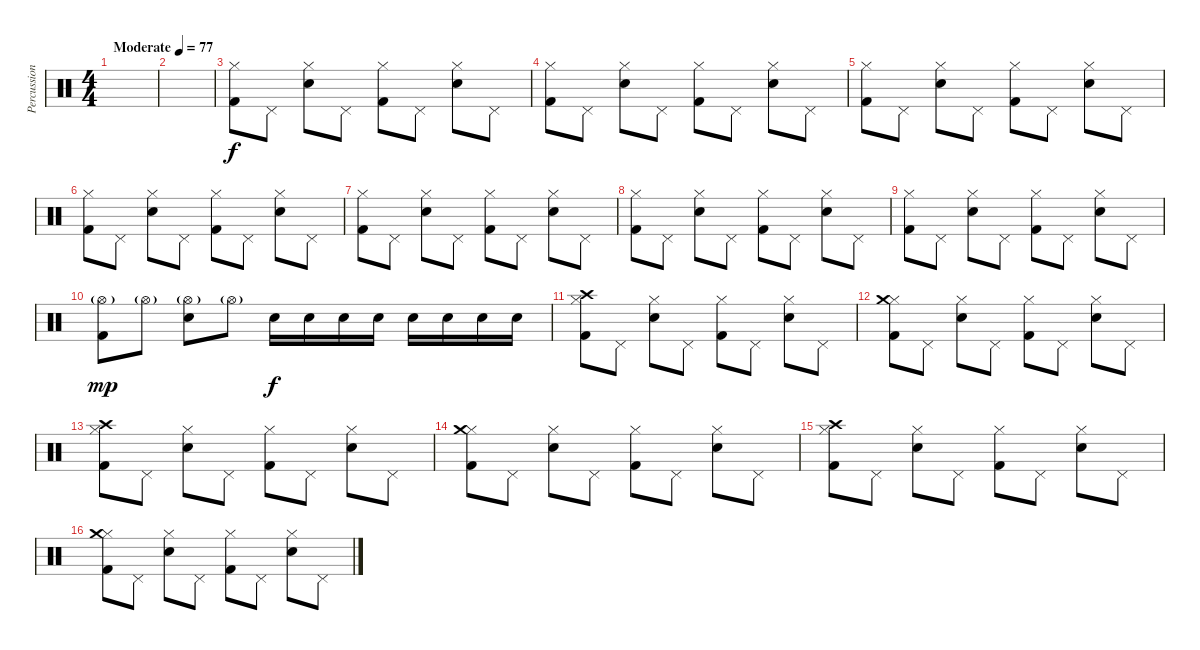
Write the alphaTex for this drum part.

\track ("Percussions" "Percussion") {instrument percussion}
\staff {score}
\articulation defaults
\ts (4 4)
\tempo (77 "Moderate")
\clef neutral
\ks c
|
|
("Hi-Hat (closed)" "Kick (hit) 2").8 "Pedal Hi-Hat (hit)".8 ("Hi-Hat (closed)" "Snare (hit) 2").8 "Pedal Hi-Hat (hit)".8 ("Hi-Hat (closed)" "Kick (hit) 2").8 "Pedal Hi-Hat (hit)".8 ("Hi-Hat (closed)" "Snare (hit) 2").8 "Pedal Hi-Hat (hit)".8 |
("Hi-Hat (closed)" "Kick (hit) 2").8 "Pedal Hi-Hat (hit)".8 ("Hi-Hat (closed)" "Snare (hit) 2").8 "Pedal Hi-Hat (hit)".8 ("Hi-Hat (closed)" "Kick (hit) 2").8 "Pedal Hi-Hat (hit)".8 ("Hi-Hat (closed)" "Snare (hit) 2").8 "Pedal Hi-Hat (hit)".8 |
("Hi-Hat (closed)" "Kick (hit) 2").8 "Pedal Hi-Hat (hit)".8 ("Hi-Hat (closed)" "Snare (hit) 2").8 "Pedal Hi-Hat (hit)".8 ("Hi-Hat (closed)" "Kick (hit) 2").8 "Pedal Hi-Hat (hit)".8 ("Hi-Hat (closed)" "Snare (hit) 2").8 "Pedal Hi-Hat (hit)".8 |
("Hi-Hat (closed)" "Kick (hit) 2").8 "Pedal Hi-Hat (hit)".8 ("Hi-Hat (closed)" "Snare (hit) 2").8 "Pedal Hi-Hat (hit)".8 ("Hi-Hat (closed)" "Kick (hit) 2").8 "Pedal Hi-Hat (hit)".8 ("Hi-Hat (closed)" "Snare (hit) 2").8 "Pedal Hi-Hat (hit)".8 |
("Hi-Hat (closed)" "Kick (hit) 2").8 "Pedal Hi-Hat (hit)".8 ("Hi-Hat (closed)" "Snare (hit) 2").8 "Pedal Hi-Hat (hit)".8 ("Hi-Hat (closed)" "Kick (hit) 2").8 "Pedal Hi-Hat (hit)".8 ("Hi-Hat (closed)" "Snare (hit) 2").8 "Pedal Hi-Hat (hit)".8 |
("Hi-Hat (closed)" "Kick (hit) 2").8 "Pedal Hi-Hat (hit)".8 ("Hi-Hat (closed)" "Snare (hit) 2").8 "Pedal Hi-Hat (hit)".8 ("Hi-Hat (closed)" "Kick (hit) 2").8 "Pedal Hi-Hat (hit)".8 ("Hi-Hat (closed)" "Snare (hit) 2").8 "Pedal Hi-Hat (hit)".8 |
("Hi-Hat (closed)" "Kick (hit) 2").8 "Pedal Hi-Hat (hit)".8 ("Hi-Hat (closed)" "Snare (hit) 2").8 "Pedal Hi-Hat (hit)".8 ("Hi-Hat (closed)" "Kick (hit) 2").8 "Pedal Hi-Hat (hit)".8 ("Hi-Hat (closed)" "Snare (hit) 2").8 "Pedal Hi-Hat (hit)".8 |
("Hi-Hat (open)"{g} "Kick (hit) 2").8{dy mp} "Hi-Hat (open)"{g}.8 ("Hi-Hat (open)"{g} "Snare (hit) 2").8 "Hi-Hat (open)"{g}.8 "Snare (hit) 2".16{dy f} "Snare (hit) 2".16 "Snare (hit) 2".16 "Snare (hit) 2".16 "Snare (hit) 2".16 "Snare (hit) 2".16 "Snare (hit) 2".16 "Snare (hit) 2".16 |
("Hi-Hat (closed)" "Crash high (hit)" "Kick (hit) 2").8 "Pedal Hi-Hat (hit)".8 ("Hi-Hat (closed)" "Snare (hit) 2").8 "Pedal Hi-Hat (hit)".8 ("Hi-Hat (closed)" "Kick (hit) 2").8 "Pedal Hi-Hat (hit)".8 ("Hi-Hat (closed)" "Snare (hit) 2").8 "Pedal Hi-Hat (hit)".8 |
("Hi-Hat (closed)" "Crash medium (hit)" "Kick (hit) 2").8 "Pedal Hi-Hat (hit)".8 ("Hi-Hat (closed)" "Snare (hit) 2").8 "Pedal Hi-Hat (hit)".8 ("Hi-Hat (closed)" "Kick (hit) 2").8 "Pedal Hi-Hat (hit)".8 ("Hi-Hat (closed)" "Snare (hit) 2").8 "Pedal Hi-Hat (hit)".8 |
("Hi-Hat (closed)" "Crash high (hit)" "Kick (hit) 2").8 "Pedal Hi-Hat (hit)".8 ("Hi-Hat (closed)" "Snare (hit) 2").8 "Pedal Hi-Hat (hit)".8 ("Hi-Hat (closed)" "Kick (hit) 2").8 "Pedal Hi-Hat (hit)".8 ("Hi-Hat (closed)" "Snare (hit) 2").8 "Pedal Hi-Hat (hit)".8 |
("Hi-Hat (closed)" "Crash medium (hit)" "Kick (hit) 2").8 "Pedal Hi-Hat (hit)".8 ("Hi-Hat (closed)" "Snare (hit) 2").8 "Pedal Hi-Hat (hit)".8 ("Hi-Hat (closed)" "Kick (hit) 2").8 "Pedal Hi-Hat (hit)".8 ("Hi-Hat (closed)" "Snare (hit) 2").8 "Pedal Hi-Hat (hit)".8 |
("Hi-Hat (closed)" "Crash high (hit)" "Kick (hit) 2").8 "Pedal Hi-Hat (hit)".8 ("Hi-Hat (closed)" "Snare (hit) 2").8 "Pedal Hi-Hat (hit)".8 ("Hi-Hat (closed)" "Kick (hit) 2").8 "Pedal Hi-Hat (hit)".8 ("Hi-Hat (closed)" "Snare (hit) 2").8 "Pedal Hi-Hat (hit)".8 |
("Hi-Hat (closed)" "Crash medium (hit)" "Kick (hit) 2").8 "Pedal Hi-Hat (hit)".8 ("Hi-Hat (closed)" "Snare (hit) 2").8 "Pedal Hi-Hat (hit)".8 ("Hi-Hat (closed)" "Kick (hit) 2").8 "Pedal Hi-Hat (hit)".8 ("Hi-Hat (closed)" "Snare (hit) 2").8 "Pedal Hi-Hat (hit)".8
